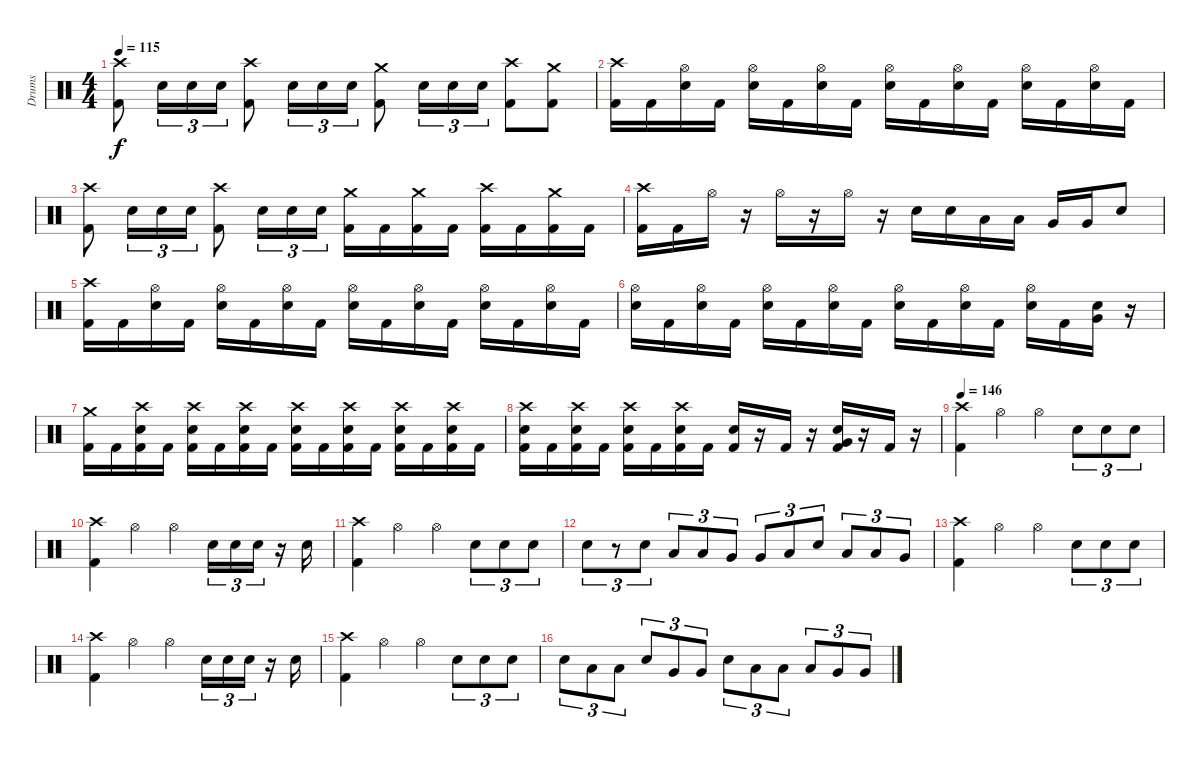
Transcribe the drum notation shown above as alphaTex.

\track ("Drums" "Drums") {instrument percussion}
\staff {score}
\articulation defaults
\ts (4 4)
\tempo 115
\clef neutral
\ks c
("Crash high (hit)" "Kick (hit) 2").8{dy f} "Snare (hit) 2".16{tu (3 2)} "Snare (hit) 2".16{tu (3 2)} "Snare (hit) 2".16{tu (3 2)} ("Crash high (hit)" "Kick (hit) 2").8 "Snare (hit) 2".16{tu (3 2)} "Snare (hit) 2".16{tu (3 2)} "Snare (hit) 2".16{tu (3 2)} ("Crash medium (hit)" "Kick (hit) 2").8 "Snare (hit) 2".16{tu (3 2)} "Snare (hit) 2".16{tu (3 2)} "Snare (hit) 2".16{tu (3 2)} ("Crash high (hit)" "Kick (hit) 2").8 ("Crash medium (hit)" "Kick (hit) 2").8 |
("Crash high (hit)" "Kick (hit) 2").16 "Kick (hit) 2".16 ("Hi-Hat (open)" "Snare (hit) 2").16 "Kick (hit) 2".16 ("Hi-Hat (open)" "Snare (hit) 2").16 "Kick (hit) 2".16 ("Hi-Hat (open)" "Snare (hit) 2").16 "Kick (hit) 2".16 ("Hi-Hat (open)" "Snare (hit) 2").16 "Kick (hit) 2".16 ("Hi-Hat (open)" "Snare (hit) 2").16 "Kick (hit) 2".16 ("Hi-Hat (open)" "Snare (hit) 2").16 "Kick (hit) 2".16 ("Hi-Hat (open)" "Snare (hit) 2").16 "Kick (hit) 2".16 |
("Crash high (hit)" "Kick (hit) 2").8 "Snare (hit) 2".16{tu (3 2)} "Snare (hit) 2".16{tu (3 2)} "Snare (hit) 2".16{tu (3 2)} ("Crash high (hit)" "Kick (hit) 2").8 "Snare (hit) 2".16{tu (3 2)} "Snare (hit) 2".16{tu (3 2)} "Snare (hit) 2".16{tu (3 2)} ("Crash medium (hit)" "Kick (hit) 2").16 "Kick (hit) 2".16 ("Crash medium (hit)" "Kick (hit) 2").16 "Kick (hit) 2".16 ("Crash high (hit)" "Kick (hit) 2").16 "Kick (hit) 2".16 ("Crash medium (hit)" "Kick (hit) 2").16 "Kick (hit) 2".16 |
("Crash high (hit)" "Kick (hit) 2").16 "Kick (hit) 2".16 "Hi-Hat (open)".16 r.16 "Hi-Hat (open)".16 r.16 "Hi-Hat (open)".16 r.16 "Snare (hit) 2".16 "Snare (hit) 2".16 "Low Tom (hit)".16 "Low Tom (hit)".16 "Very Low Tom (hit)".16 "Very Low Tom (hit)".16 "Snare (hit) 2".8 |
("Crash high (hit)" "Kick (hit) 2").16 "Kick (hit) 2".16 ("Hi-Hat (open)" "Snare (hit) 2").16 "Kick (hit) 2".16 ("Hi-Hat (open)" "Snare (hit) 2").16 "Kick (hit) 2".16 ("Hi-Hat (open)" "Snare (hit) 2").16 "Kick (hit) 2".16 ("Hi-Hat (open)" "Snare (hit) 2").16 "Kick (hit) 2".16 ("Hi-Hat (open)" "Snare (hit) 2").16 "Kick (hit) 2".16 ("Hi-Hat (open)" "Snare (hit) 2").16 "Kick (hit) 2".16 ("Hi-Hat (open)" "Snare (hit) 2").16 "Kick (hit) 2".16 |
("Hi-Hat (open)" "Snare (hit) 2").16 "Kick (hit) 2".16 ("Hi-Hat (open)" "Snare (hit) 2").16 "Kick (hit) 2".16 ("Hi-Hat (open)" "Snare (hit) 2").16 "Kick (hit) 2".16 ("Hi-Hat (open)" "Snare (hit) 2").16 "Kick (hit) 2".16 ("Hi-Hat (open)" "Snare (hit) 2").16 "Kick (hit) 2".16 ("Hi-Hat (open)" "Snare (hit) 2").16 "Kick (hit) 2".16 ("Hi-Hat (open)" "Snare (hit) 2").16 "Kick (hit) 2".16 ("Very Low Tom (hit)" "Snare (hit) 2").16 r.16 |
("Crash medium (hit)" "Kick (hit) 2").16 "Kick (hit) 2".16 ("Crash high (hit)" "Snare (hit) 2" "Kick (hit) 2").16 "Kick (hit) 2".16 ("Crash high (hit)" "Snare (hit) 2" "Kick (hit) 2").16 "Kick (hit) 2".16 ("Crash high (hit)" "Snare (hit) 2" "Kick (hit) 2").16 "Kick (hit) 2".16 ("Crash high (hit)" "Snare (hit) 2" "Kick (hit) 2").16 "Kick (hit) 2".16 ("Crash high (hit)" "Snare (hit) 2" "Kick (hit) 2").16 "Kick (hit) 2".16 ("Crash high (hit)" "Snare (hit) 2" "Kick (hit) 2").16 "Kick (hit) 2".16 ("Crash high (hit)" "Snare (hit) 2" "Kick (hit) 2").16 "Kick (hit) 2".16 |
("Crash high (hit)" "Snare (hit) 2" "Kick (hit) 2").16 "Kick (hit) 2".16 ("Crash high (hit)" "Snare (hit) 2" "Kick (hit) 2").16 "Kick (hit) 2".16 ("Crash high (hit)" "Snare (hit) 2" "Kick (hit) 2").16 "Kick (hit) 2".16 ("Crash high (hit)" "Snare (hit) 2" "Kick (hit) 2").16 "Kick (hit) 2".16 ("Snare (hit) 2" "Kick (hit) 2").16 r.16 "Kick (hit) 2".16 r.16 ("Very Low Tom (hit)" "Snare (hit) 2" "Kick (hit) 2").16 r.16 "Kick (hit) 2".16 r.16 |
\tempo 146
("Crash high (hit)" "Kick (hit) 2").4 "Hi-Hat (open)".4 "Hi-Hat (open)".4 "Snare (hit) 2".8{tu (3 2)} "Snare (hit) 2".8{tu (3 2)} "Snare (hit) 2".8{tu (3 2)} |
("Crash high (hit)" "Kick (hit) 2").4 "Hi-Hat (open)".4 "Hi-Hat (open)".4 "Snare (hit) 2".16{tu (3 2)} "Snare (hit) 2".16{tu (3 2)} "Snare (hit) 2".16{tu (3 2)} r.16 "Snare (hit) 2".16 |
("Crash high (hit)" "Kick (hit) 2").4 "Hi-Hat (open)".4 "Hi-Hat (open)".4 "Snare (hit) 2".8{tu (3 2)} "Snare (hit) 2".8{tu (3 2)} "Snare (hit) 2".8{tu (3 2)} |
"Snare (hit) 2".8{tu (3 2)} r.8{tu (3 2)} "Snare (hit) 2".8{tu (3 2)} "Low Tom (hit)".8{tu (3 2)} "Low Tom (hit)".8{tu (3 2)} "Very Low Tom (hit)".8{tu (3 2)} "Very Low Tom (hit)".8{tu (3 2)} "Low Floor Tom (hit)".8{tu (3 2)} "Snare (hit) 2".8{tu (3 2)} "Low Tom (hit)".8{tu (3 2)} "Low Tom (hit)".8{tu (3 2)} "Very Low Tom (hit)".8{tu (3 2)} |
("Crash high (hit)" "Kick (hit) 2").4 "Hi-Hat (open)".4 "Hi-Hat (open)".4 "Snare (hit) 2".8{tu (3 2)} "Snare (hit) 2".8{tu (3 2)} "Snare (hit) 2".8{tu (3 2)} |
("Crash high (hit)" "Kick (hit) 2").4 "Hi-Hat (open)".4 "Hi-Hat (open)".4 "Snare (hit) 2".16{tu (3 2)} "Snare (hit) 2".16{tu (3 2)} "Snare (hit) 2".16{tu (3 2)} r.16 "Snare (hit) 2".16 |
("Crash high (hit)" "Kick (hit) 2").4 "Hi-Hat (open)".4 "Hi-Hat (open)".4 "Snare (hit) 2".8{tu (3 2)} "Snare (hit) 2".8{tu (3 2)} "Snare (hit) 2".8{tu (3 2)} |
"Snare (hit) 2".8{tu (3 2)} "Low Tom (hit)".8{tu (3 2)} "Low Tom (hit)".8{tu (3 2)} "Snare (hit) 2".8{tu (3 2)} "Very Low Tom (hit)".8{tu (3 2)} "Very Low Tom (hit)".8{tu (3 2)} "Snare (hit) 2".8{tu (3 2)} "Low Tom (hit)".8{tu (3 2)} "Low Tom (hit)".8{tu (3 2)} "Low Tom (hit)".8{tu (3 2)} "Very Low Tom (hit)".8{tu (3 2)} "Very Low Tom (hit)".8{tu (3 2)}
